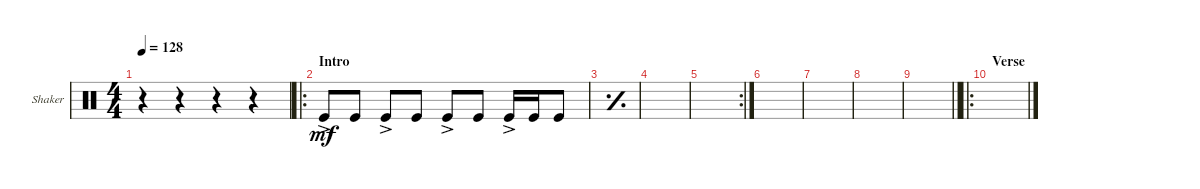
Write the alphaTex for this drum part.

\defaultSystemsLayout 4
\bracketExtendMode groupsimilarinstruments
\firstSystemTrackNameOrientation horizontal
\otherSystemsTrackNameOrientation horizontal
\track ("Shaker" "Shaker") {instrument percussion}
\staff {score}
\articulation defaults
\ts (4 4)
\tempo 128
\clef neutral
\scale
0.447368
\ks c
r.4{dy mf} r.4 r.4 r.4 |
\ro
\section ("" "Intro")
\scale
0.302632 "Kick (hit)"{ac}.8 "Kick (hit)".8 "Kick (hit)"{ac}.8 "Kick (hit)".8 "Kick (hit)"{ac}.8 "Kick (hit)".8 "Kick (hit)"{ac}.16 "Kick (hit)".16 "Kick (hit)".8 |
\simile simple
\scale
0.25 |
\scale
0.322034 |
\rc 2
\scale
0.355932 |
\scale
0.322034 |
\scale
0.333333 |
\scale
0.333333 |
\scale
0.333333
\barLineRight lightlight
|
\ro
\section ("" "Verse")
\scale
0.377049 |
\scale
0.311475 |
\scale
0.311475 |
\scale
0.333333 |
\scale
0.333333 |
\scale
0.333333 |
\scale
0.322034
